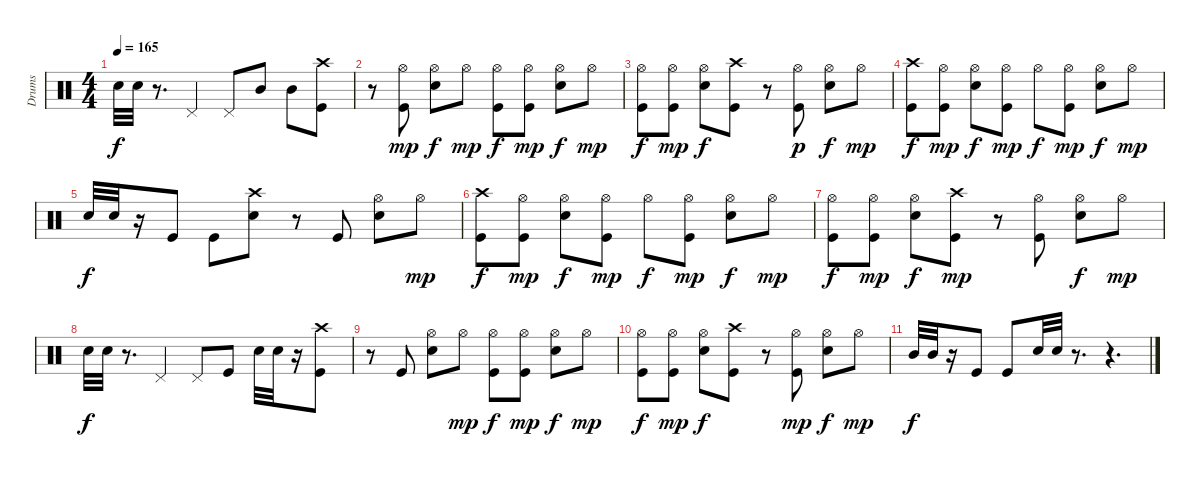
\track ("Drums" "Drums") {instrument percussion}
\staff {score}
\articulation defaults
\ts (4 4)
\tempo 165
\clef neutral
\ks c "Snare (hit) 2".32{dy f} "Snare (hit) 2".32
r.8{d} "Pedal Hi-Hat (hit)".4 "Pedal Hi-Hat (hit)".8 "Mid Tom (hit)".8 "Mid Tom (hit)".8 ("Crash high (hit)" "Kick (hit)").8 |
r.8 ("Hi-Hat (open)" "Kick (hit)").8{dy mp} ("Hi-Hat (open)" "Snare (hit) 2").8{dy f} "Hi-Hat (open)".8{dy mp} ("Hi-Hat (open)" "Kick (hit)").8{dy f} ("Hi-Hat (open)" "Kick (hit)").8{dy mp} ("Hi-Hat (open)" "Snare (hit) 2").8{dy f} "Hi-Hat (open)".8{dy mp} |
("Hi-Hat (open)" "Kick (hit)").8{dy f} ("Hi-Hat (open)" "Kick (hit)").8{dy mp} ("Hi-Hat (open)" "Snare (hit) 2").8{dy f} ("Crash high (hit)" "Kick (hit)").8 r.8 ("Hi-Hat (open)" "Kick (hit)").8{dy p} ("Hi-Hat (open)" "Snare (hit) 2").8{dy f} "Hi-Hat (open)".8{dy mp} |
("Crash high (hit)" "Kick (hit)").8{dy f} ("Hi-Hat (open)" "Kick (hit)").8{dy mp} ("Hi-Hat (open)" "Snare (hit) 2").8{dy f} ("Hi-Hat (open)" "Kick (hit)").8{dy mp} "Hi-Hat (open)".8{dy f} ("Hi-Hat (open)" "Kick (hit)").8{dy mp} ("Hi-Hat (open)" "Snare (hit) 2").8{dy f} "Hi-Hat (open)".8{dy mp} |
"Snare (hit) 2".32{dy f} "Snare (hit) 2".32 r.16 "Kick (hit)".8 "Kick (hit)".8 ("Crash high (hit)" "Snare (hit) 2").8 r.8 "Kick (hit)".8 ("Hi-Hat (open)" "Snare (hit) 2").8 "Hi-Hat (open)".8{dy mp} |
("Crash high (hit)" "Kick (hit)").8{dy f} ("Hi-Hat (open)" "Kick (hit)").8{dy mp} ("Hi-Hat (open)" "Snare (hit) 2").8{dy f} ("Hi-Hat (open)" "Kick (hit)").8{dy mp} "Hi-Hat (open)".8{dy f} ("Hi-Hat (open)" "Kick (hit)").8{dy mp} ("Hi-Hat (open)" "Snare (hit) 2").8{dy f} "Hi-Hat (open)".8{dy mp} |
("Hi-Hat (open)" "Kick (hit)").8{dy f} ("Hi-Hat (open)" "Kick (hit)").8{dy mp} ("Hi-Hat (open)" "Snare (hit) 2").8{dy f} ("Crash high (hit)" "Kick (hit)").8{dy mp} r.8 ("Hi-Hat (open)" "Kick (hit)").8 ("Hi-Hat (open)" "Snare (hit) 2").8{dy f} "Hi-Hat (open)".8{dy mp} |
"Snare (hit) 2".32{dy f} "Snare (hit) 2".32 r.8{d} "Pedal Hi-Hat (hit)".4 "Pedal Hi-Hat (hit)".8 "Kick (hit)".8 "Snare (hit) 2".32 "Snare (hit) 2".32 r.16 ("Crash high (hit)" "Kick (hit)").8 |
r.8 "Kick (hit)".8 ("Hi-Hat (open)" "Snare (hit) 2").8 "Hi-Hat (open)".8{dy mp} ("Hi-Hat (open)" "Kick (hit)").8{dy f} ("Hi-Hat (open)" "Kick (hit)").8{dy mp} ("Hi-Hat (open)" "Snare (hit) 2").8{dy f} "Hi-Hat (open)".8{dy mp} |
("Hi-Hat (open)" "Kick (hit)").8{dy f} ("Hi-Hat (open)" "Kick (hit)").8{dy mp} ("Hi-Hat (open)" "Snare (hit) 2").8{dy f} ("Crash high (hit)" "Kick (hit)").8 r.8 ("Hi-Hat (open)" "Kick (hit)").8{dy mp} ("Hi-Hat (open)" "Snare (hit) 2").8{dy f} "Hi-Hat (open)".8{dy mp} |
"Mid Tom (hit)".32{dy f} "Mid Tom (hit)".32 r.16 "Kick (hit)".8 "Kick (hit)".8 "Snare (hit) 2".32 "Snare (hit) 2".32 r.8{d} r.4{d}
